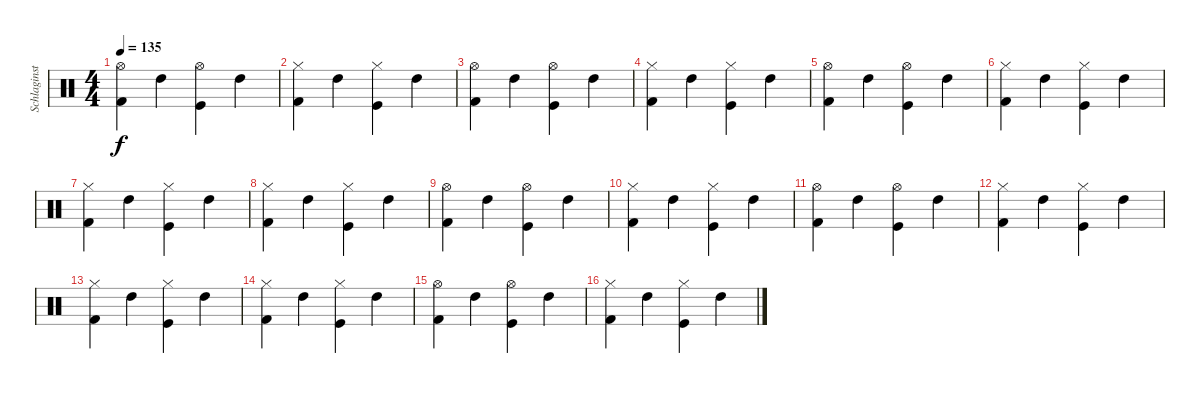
\track ("Schlaginstrumente - Auswahl" "Schlaginst") {instrument percussion}
\staff {score}
\articulation defaults
\ts (4 4)
\tempo 135
\clef neutral
\ks c
("Kick (hit) 2" "Hi-Hat (open)").4{dy f} "High Tom (hit)".4 ("Kick (hit)" "Hi-Hat (open)").4 "High Tom (hit)".4 |
("Kick (hit) 2" "Hi-Hat (closed)").4 "High Tom (hit)".4 ("Kick (hit)" "Hi-Hat (closed)").4 "High Tom (hit)".4 |
("Kick (hit) 2" "Hi-Hat (open)").4 "High Tom (hit)".4 ("Kick (hit)" "Hi-Hat (open)").4 "High Tom (hit)".4 |
("Kick (hit) 2" "Hi-Hat (closed)").4 "High Tom (hit)".4 ("Kick (hit)" "Hi-Hat (closed)").4 "High Tom (hit)".4 |
("Kick (hit) 2" "Hi-Hat (open)").4 "High Tom (hit)".4 ("Kick (hit)" "Hi-Hat (open)").4 "High Tom (hit)".4 |
("Kick (hit) 2" "Hi-Hat (closed)").4 "High Tom (hit)".4 ("Kick (hit)" "Hi-Hat (closed)").4 "High Tom (hit)".4 |
("Kick (hit) 2" "Hi-Hat (closed)").4 "High Tom (hit)".4 ("Kick (hit)" "Hi-Hat (closed)").4 "High Tom (hit)".4 |
("Kick (hit) 2" "Hi-Hat (closed)").4 "High Tom (hit)".4 ("Kick (hit)" "Hi-Hat (closed)").4 "High Tom (hit)".4 |
("Kick (hit) 2" "Hi-Hat (open)").4 "High Tom (hit)".4 ("Kick (hit)" "Hi-Hat (open)").4 "High Tom (hit)".4 |
("Kick (hit) 2" "Hi-Hat (closed)").4 "High Tom (hit)".4 ("Kick (hit)" "Hi-Hat (closed)").4 "High Tom (hit)".4 |
("Kick (hit) 2" "Hi-Hat (open)").4 "High Tom (hit)".4 ("Kick (hit)" "Hi-Hat (open)").4 "High Tom (hit)".4 |
("Kick (hit) 2" "Hi-Hat (closed)").4 "High Tom (hit)".4 ("Kick (hit)" "Hi-Hat (closed)").4 "High Tom (hit)".4 |
("Kick (hit) 2" "Hi-Hat (closed)").4 "High Tom (hit)".4 ("Kick (hit)" "Hi-Hat (closed)").4 "High Tom (hit)".4 |
("Kick (hit) 2" "Hi-Hat (closed)").4 "High Tom (hit)".4 ("Kick (hit)" "Hi-Hat (closed)").4 "High Tom (hit)".4 |
("Kick (hit) 2" "Hi-Hat (open)").4 "High Tom (hit)".4 ("Kick (hit)" "Hi-Hat (open)").4 "High Tom (hit)".4 |
("Kick (hit) 2" "Hi-Hat (closed)").4 "High Tom (hit)".4 ("Kick (hit)" "Hi-Hat (closed)").4 "High Tom (hit)".4
